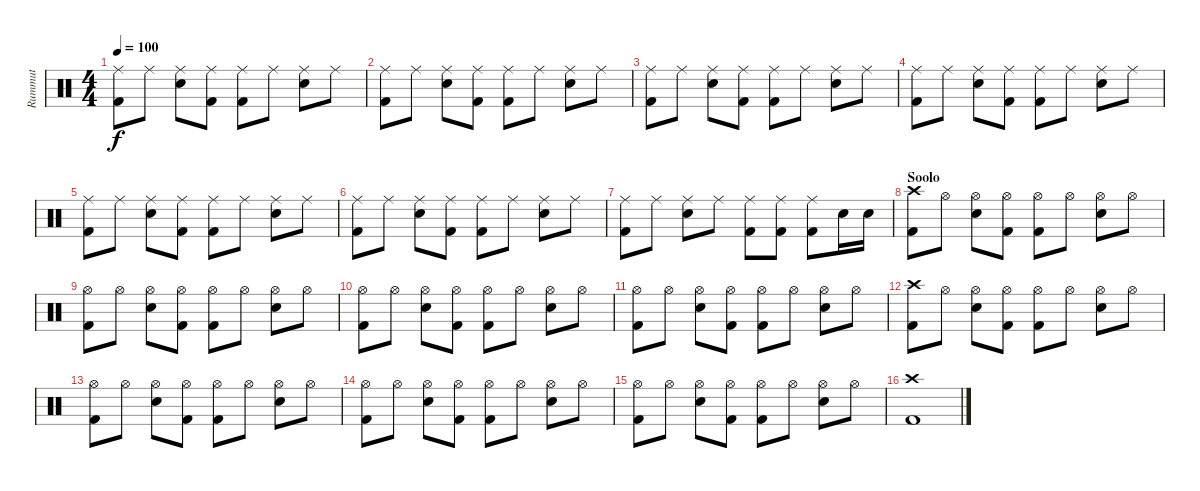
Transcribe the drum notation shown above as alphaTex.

\track ("Rummut" "Rummut") {instrument percussion}
\staff {score}
\articulation defaults
\ts (4 4)
\tempo 100
\clef neutral
\ks c
("Ride (middle)" "Kick (hit) 2").8{dy f} "Ride (middle)".8 ("Ride (middle)" "Snare (hit) 2").8 ("Ride (middle)" "Kick (hit) 2").8 ("Ride (middle)" "Kick (hit) 2").8 "Ride (middle)".8 ("Ride (middle)" "Snare (hit) 2").8 "Ride (middle)".8 |
("Ride (middle)" "Kick (hit) 2").8 "Ride (middle)".8 ("Ride (middle)" "Snare (hit) 2").8 ("Ride (middle)" "Kick (hit) 2").8 ("Ride (middle)" "Kick (hit) 2").8 "Ride (middle)".8 ("Ride (middle)" "Snare (hit) 2").8 "Ride (middle)".8 |
("Ride (middle)" "Kick (hit) 2").8 "Ride (middle)".8 ("Ride (middle)" "Snare (hit) 2").8 ("Ride (middle)" "Kick (hit) 2").8 ("Ride (middle)" "Kick (hit) 2").8 "Ride (middle)".8 ("Ride (middle)" "Snare (hit) 2").8 "Ride (middle)".8 |
("Ride (middle)" "Kick (hit) 2").8 "Ride (middle)".8 ("Ride (middle)" "Snare (hit) 2").8 ("Ride (middle)" "Kick (hit) 2").8 ("Ride (middle)" "Kick (hit) 2").8 "Ride (middle)".8 ("Ride (middle)" "Snare (hit) 2").8 "Ride (middle)".8 |
("Ride (middle)" "Kick (hit) 2").8 "Ride (middle)".8 ("Ride (middle)" "Snare (hit) 2").8 ("Ride (middle)" "Kick (hit) 2").8 ("Ride (middle)" "Kick (hit) 2").8 "Ride (middle)".8 ("Ride (middle)" "Snare (hit) 2").8 "Ride (middle)".8 |
("Ride (middle)" "Kick (hit) 2").8 "Ride (middle)".8 ("Ride (middle)" "Snare (hit) 2").8 ("Ride (middle)" "Kick (hit) 2").8 ("Ride (middle)" "Kick (hit) 2").8 "Ride (middle)".8 ("Ride (middle)" "Snare (hit) 2").8 "Ride (middle)".8 |
("Ride (middle)" "Kick (hit) 2").8 "Ride (middle)".8 ("Ride (middle)" "Snare (hit) 2").8 "Ride (middle)".8 ("Ride (middle)" "Kick (hit) 2").8 ("Ride (middle)" "Kick (hit) 2").8 ("Ride (middle)" "Kick (hit) 2").8 "Snare (hit) 2".16 "Snare (hit) 2".16 |
\section ("" "Soolo")
("Crash high (hit)" "Kick (hit) 2").8 "Hi-Hat (open)".8 ("Hi-Hat (open)" "Snare (hit) 2").8 ("Hi-Hat (open)" "Kick (hit) 2").8 ("Hi-Hat (open)" "Kick (hit) 2").8 "Hi-Hat (open)".8 ("Hi-Hat (open)" "Snare (hit) 2").8 "Hi-Hat (open)".8 |
("Hi-Hat (open)" "Kick (hit) 2").8 "Hi-Hat (open)".8 ("Hi-Hat (open)" "Snare (hit) 2").8 ("Hi-Hat (open)" "Kick (hit) 2").8 ("Hi-Hat (open)" "Kick (hit) 2").8 "Hi-Hat (open)".8 ("Hi-Hat (open)" "Snare (hit) 2").8 "Hi-Hat (open)".8 |
("Hi-Hat (open)" "Kick (hit) 2").8 "Hi-Hat (open)".8 ("Hi-Hat (open)" "Snare (hit) 2").8 ("Hi-Hat (open)" "Kick (hit) 2").8 ("Hi-Hat (open)" "Kick (hit) 2").8 "Hi-Hat (open)".8 ("Hi-Hat (open)" "Snare (hit) 2").8 "Hi-Hat (open)".8 |
("Hi-Hat (open)" "Kick (hit) 2").8 "Hi-Hat (open)".8 ("Hi-Hat (open)" "Snare (hit) 2").8 ("Hi-Hat (open)" "Kick (hit) 2").8 ("Hi-Hat (open)" "Kick (hit) 2").8 "Hi-Hat (open)".8 ("Hi-Hat (open)" "Snare (hit) 2").8 "Hi-Hat (open)".8 |
("Crash high (hit)" "Kick (hit) 2").8 "Hi-Hat (open)".8 ("Hi-Hat (open)" "Snare (hit) 2").8 ("Hi-Hat (open)" "Kick (hit) 2").8 ("Hi-Hat (open)" "Kick (hit) 2").8 "Hi-Hat (open)".8 ("Hi-Hat (open)" "Snare (hit) 2").8 "Hi-Hat (open)".8 |
("Hi-Hat (open)" "Kick (hit) 2").8 "Hi-Hat (open)".8 ("Hi-Hat (open)" "Snare (hit) 2").8 ("Hi-Hat (open)" "Kick (hit) 2").8 ("Hi-Hat (open)" "Kick (hit) 2").8 "Hi-Hat (open)".8 ("Hi-Hat (open)" "Snare (hit) 2").8 "Hi-Hat (open)".8 |
("Hi-Hat (open)" "Kick (hit) 2").8 "Hi-Hat (open)".8 ("Hi-Hat (open)" "Snare (hit) 2").8 ("Hi-Hat (open)" "Kick (hit) 2").8 ("Hi-Hat (open)" "Kick (hit) 2").8 "Hi-Hat (open)".8 ("Hi-Hat (open)" "Snare (hit) 2").8 "Hi-Hat (open)".8 |
("Hi-Hat (open)" "Kick (hit) 2").8 "Hi-Hat (open)".8 ("Hi-Hat (open)" "Snare (hit) 2").8 ("Hi-Hat (open)" "Kick (hit) 2").8 ("Hi-Hat (open)" "Kick (hit) 2").8 "Hi-Hat (open)".8 ("Hi-Hat (open)" "Snare (hit) 2").8 "Hi-Hat (open)".8 |
("Crash high (hit)" "Kick (hit) 2").1
